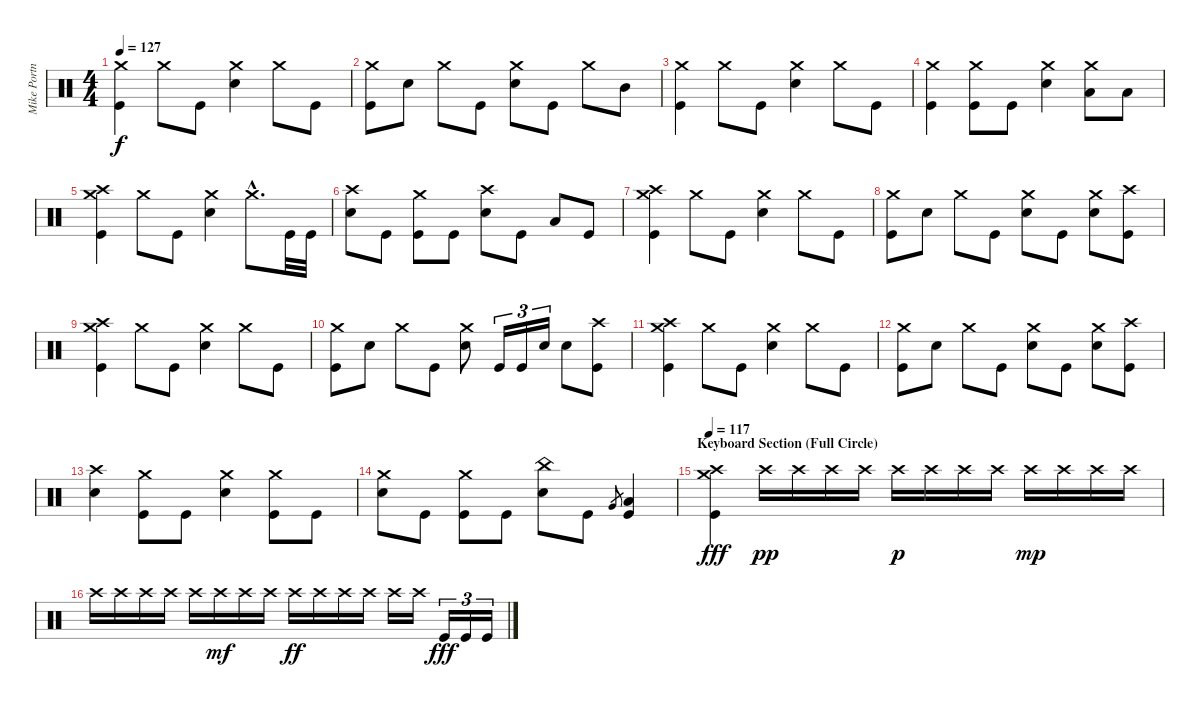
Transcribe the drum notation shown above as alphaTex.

\track ("Mike Portnoy" "Mike Portn") {instrument percussion}
\staff {score}
\articulation defaults
\ts (4 4)
\tempo 127
\clef neutral
\ks c
("Crash medium (hit)" "Kick (hit)").4{dy f} "Crash medium (hit)".8 "Kick (hit)".8 ("Crash medium (hit)" "Electric Snare (hit)").4 "Crash medium (hit)".8 "Kick (hit)".8 |
("Crash medium (hit)" "Kick (hit)").8 "Electric Snare (hit)".8 "Crash medium (hit)".8 "Kick (hit)".8 ("Crash medium (hit)" "Electric Snare (hit)").8 "Kick (hit)".8 "Crash medium (hit)".8 "Mid Tom (hit)".8 |
("Crash medium (hit)" "Kick (hit)").4 "Crash medium (hit)".8 "Kick (hit)".8 ("Crash medium (hit)" "Electric Snare (hit)").4 "Crash medium (hit)".8 "Kick (hit)".8 |
("Crash medium (hit)" "Kick (hit)").4 ("Crash medium (hit)" "Kick (hit)").8 "Kick (hit)".8 ("Crash medium (hit)" "Electric Snare (hit)").4 ("Crash medium (hit)" "Low Tom (hit)").8 "Low Tom (hit)".8 |
("Crash high (hit)" "Crash medium (hit)" "Kick (hit)").4 "Crash medium (hit)".8 "Kick (hit)".8 ("Crash medium (hit)" "Electric Snare (hit)").4 "Crash medium (hit)"{hac}.8{d} "Kick (hit)".32 "Kick (hit)".32 |
("Crash high (hit)" "Electric Snare (hit)").8 "Kick (hit)".8 ("Crash medium (hit)" "Kick (hit)").8 "Kick (hit)".8 ("Crash high (hit)" "Electric Snare (hit)").8 "Kick (hit)".8 "Low Tom (hit)".8 "Kick (hit)".8 |
("Crash medium (hit)" "Crash high (hit)" "Kick (hit)").4 "Crash medium (hit)".8 "Kick (hit)".8 ("Crash medium (hit)" "Electric Snare (hit)").4 "Crash medium (hit)".8 "Kick (hit)".8 |
("Crash medium (hit)" "Kick (hit)").8 "Electric Snare (hit)".8 "Crash medium (hit)".8 "Kick (hit)".8 ("Crash medium (hit)" "Electric Snare (hit)").8 "Kick (hit)".8 ("Crash medium (hit)" "Electric Snare (hit)").8 ("Crash high (hit)" "Kick (hit)").8 |
("Crash medium (hit)" "Crash high (hit)" "Kick (hit)").4 "Crash medium (hit)".8 "Kick (hit)".8 ("Crash medium (hit)" "Electric Snare (hit)").4 "Crash medium (hit)".8 "Kick (hit)".8 |
("Crash medium (hit)" "Kick (hit)").8 "Electric Snare (hit)".8 "Crash medium (hit)".8 "Kick (hit)".8 ("Crash medium (hit)" "Electric Snare (hit)").8 "Kick (hit)".16{tu (3 2)} "Kick (hit)".16{tu (3 2)} "Electric Snare (hit)".16{tu (3 2)} "Electric Snare (hit)".8 ("Crash high (hit)" "Kick (hit)").8 |
("Crash medium (hit)" "Crash high (hit)" "Kick (hit)").4 "Crash medium (hit)".8 "Kick (hit)".8 ("Crash medium (hit)" "Electric Snare (hit)").4 "Crash medium (hit)".8 "Kick (hit)".8 |
("Crash medium (hit)" "Kick (hit)").8 "Electric Snare (hit)".8 "Crash medium (hit)".8 "Kick (hit)".8 ("Crash medium (hit)" "Electric Snare (hit)").8 "Kick (hit)".8 ("Crash medium (hit)" "Electric Snare (hit)").8 ("Crash high (hit)" "Kick (hit)").8 |
("Crash high (hit)" "Electric Snare (hit)").4 ("Crash medium (hit)" "Kick (hit)").8 "Kick (hit)".8 ("Crash medium (hit)" "Electric Snare (hit)").4 ("Crash medium (hit)" "Kick (hit)").8 "Kick (hit)".8 |
("Crash medium (hit)" "Electric Snare (hit)").8 "Kick (hit)".8 ("Crash medium (hit)" "Kick (hit)").8 "Kick (hit)".8 ("China (hit)" "Electric Snare (hit)").8 "Kick (hit)".8 "Very Low Tom (hit)".8{gr} ("Low Tom (hit)" "Kick (hit)").4 |
\section ("" "Keyboard Section (Full Circle)")
\tempo 117
("Crash high (hit)" "Crash medium (hit)" "Kick (hit)").4{dy fff} "Crash high (hit)".16{dy pp} "Crash high (hit)".16 "Crash high (hit)".16 "Crash high (hit)".16 "Crash high (hit)".16{dy p} "Crash high (hit)".16 "Crash high (hit)".16 "Crash high (hit)".16 "Crash high (hit)".16{dy mp} "Crash high (hit)".16 "Crash high (hit)".16 "Crash high (hit)".16 |
"Crash high (hit)".16 "Crash high (hit)".16 "Crash high (hit)".16 "Crash high (hit)".16 "Crash high (hit)".16 "Crash high (hit)".16{dy mf} "Crash high (hit)".16 "Crash high (hit)".16 "Crash high (hit)".16{dy ff} "Crash high (hit)".16 "Crash high (hit)".16 "Crash high (hit)".16 "Crash high (hit)".16 "Crash high (hit)".16 "Kick (hit)".16{tu (3 2) dy fff} "Kick (hit)".16{tu (3 2)} "Kick (hit)".16{tu (3 2)}
